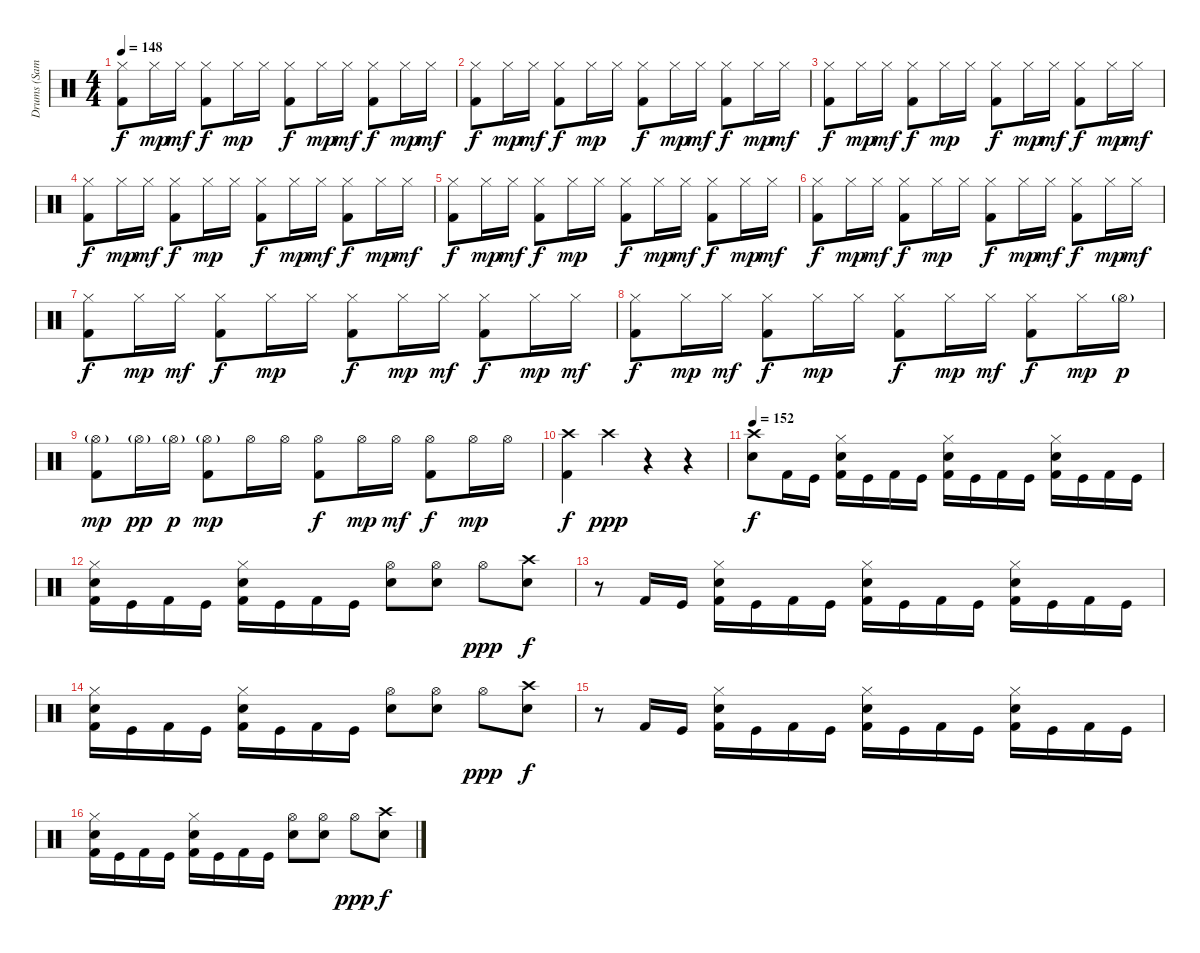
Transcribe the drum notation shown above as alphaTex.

\track ("Drums (Samuelson)" "Drums (Sam") {instrument percussion}
\staff
\articulation defaults
\ts (4 4)
\tempo 148
\clef neutral
\ks c
("Hi-Hat (closed)" "Kick (hit) 2").8{dy f} "Hi-Hat (closed)".16{dy mp} "Hi-Hat (closed)".16{dy mf} ("Hi-Hat (closed)" "Kick (hit) 2").8{dy f} "Hi-Hat (closed)".16{dy mp} "Hi-Hat (closed)".16 ("Hi-Hat (closed)" "Kick (hit) 2").8{dy f} "Hi-Hat (closed)".16{dy mp} "Hi-Hat (closed)".16{dy mf} ("Hi-Hat (closed)" "Kick (hit) 2").8{dy f} "Hi-Hat (closed)".16{dy mp} "Hi-Hat (closed)".16{dy mf} |
("Hi-Hat (closed)" "Kick (hit) 2").8{dy f} "Hi-Hat (closed)".16{dy mp} "Hi-Hat (closed)".16{dy mf} ("Hi-Hat (closed)" "Kick (hit) 2").8{dy f} "Hi-Hat (closed)".16{dy mp} "Hi-Hat (closed)".16 ("Hi-Hat (closed)" "Kick (hit) 2").8{dy f} "Hi-Hat (closed)".16{dy mp} "Hi-Hat (closed)".16{dy mf} ("Hi-Hat (closed)" "Kick (hit) 2").8{dy f} "Hi-Hat (closed)".16{dy mp} "Hi-Hat (closed)".16{dy mf} |
("Hi-Hat (closed)" "Kick (hit) 2").8{dy f} "Hi-Hat (closed)".16{dy mp} "Hi-Hat (closed)".16{dy mf} ("Hi-Hat (closed)" "Kick (hit) 2").8{dy f} "Hi-Hat (closed)".16{dy mp} "Hi-Hat (closed)".16 ("Hi-Hat (closed)" "Kick (hit) 2").8{dy f} "Hi-Hat (closed)".16{dy mp} "Hi-Hat (closed)".16{dy mf} ("Hi-Hat (closed)" "Kick (hit) 2").8{dy f} "Hi-Hat (closed)".16{dy mp} "Hi-Hat (closed)".16{dy mf} |
("Hi-Hat (closed)" "Kick (hit) 2").8{dy f} "Hi-Hat (closed)".16{dy mp} "Hi-Hat (closed)".16{dy mf} ("Hi-Hat (closed)" "Kick (hit) 2").8{dy f} "Hi-Hat (closed)".16{dy mp} "Hi-Hat (closed)".16 ("Hi-Hat (closed)" "Kick (hit) 2").8{dy f} "Hi-Hat (closed)".16{dy mp} "Hi-Hat (closed)".16{dy mf} ("Hi-Hat (closed)" "Kick (hit) 2").8{dy f} "Hi-Hat (closed)".16{dy mp} "Hi-Hat (closed)".16{dy mf} |
("Hi-Hat (closed)" "Kick (hit) 2").8{dy f} "Hi-Hat (closed)".16{dy mp} "Hi-Hat (closed)".16{dy mf} ("Hi-Hat (closed)" "Kick (hit) 2").8{dy f} "Hi-Hat (closed)".16{dy mp} "Hi-Hat (closed)".16 ("Hi-Hat (closed)" "Kick (hit) 2").8{dy f} "Hi-Hat (closed)".16{dy mp} "Hi-Hat (closed)".16{dy mf} ("Hi-Hat (closed)" "Kick (hit) 2").8{dy f} "Hi-Hat (closed)".16{dy mp} "Hi-Hat (closed)".16{dy mf} |
("Hi-Hat (closed)" "Kick (hit) 2").8{dy f} "Hi-Hat (closed)".16{dy mp} "Hi-Hat (closed)".16{dy mf} ("Hi-Hat (closed)" "Kick (hit) 2").8{dy f} "Hi-Hat (closed)".16{dy mp} "Hi-Hat (closed)".16 ("Hi-Hat (closed)" "Kick (hit) 2").8{dy f} "Hi-Hat (closed)".16{dy mp} "Hi-Hat (closed)".16{dy mf} ("Hi-Hat (closed)" "Kick (hit) 2").8{dy f} "Hi-Hat (closed)".16{dy mp} "Hi-Hat (closed)".16{dy mf} |
("Hi-Hat (closed)" "Kick (hit) 2").8{dy f} "Hi-Hat (closed)".16{dy mp} "Hi-Hat (closed)".16{dy mf} ("Hi-Hat (closed)" "Kick (hit) 2").8{dy f} "Hi-Hat (closed)".16{dy mp} "Hi-Hat (closed)".16 ("Hi-Hat (closed)" "Kick (hit) 2").8{dy f} "Hi-Hat (closed)".16{dy mp} "Hi-Hat (closed)".16{dy mf} ("Hi-Hat (closed)" "Kick (hit) 2").8{dy f} "Hi-Hat (closed)".16{dy mp} "Hi-Hat (closed)".16{dy mf} |
("Hi-Hat (closed)" "Kick (hit) 2").8{dy f} "Hi-Hat (closed)".16{dy mp} "Hi-Hat (closed)".16{dy mf} ("Hi-Hat (closed)" "Kick (hit) 2").8{dy f} "Hi-Hat (closed)".16{dy mp} "Hi-Hat (closed)".16 ("Hi-Hat (closed)" "Kick (hit) 2").8{dy f} "Hi-Hat (closed)".16{dy mp} "Hi-Hat (closed)".16{dy mf} ("Hi-Hat (closed)" "Kick (hit) 2").8{dy f} "Hi-Hat (closed)".16{dy mp} "Hi-Hat (open)"{g}.16{dy p} |
("Hi-Hat (open)"{g} "Kick (hit) 2").8{dy mp} "Hi-Hat (open)"{g}.16{dy pp} "Hi-Hat (open)"{g}.16{dy p} ("Hi-Hat (open)"{g} "Kick (hit) 2").8{dy mp} "Hi-Hat (open)".16 "Hi-Hat (open)".16 ("Hi-Hat (open)" "Kick (hit) 2").8{dy f} "Hi-Hat (open)".16{dy mp} "Hi-Hat (open)".16{dy mf} ("Hi-Hat (open)" "Kick (hit) 2").8{dy f} "Hi-Hat (open)".16{dy mp} "Hi-Hat (open)".16 |
("Crash high (hit)" "Kick (hit) 2").4{dy f} "Crash high (hit)".4{dy ppp} r.4 r.4 |
\tempo 152
("Crash high (hit)" "Electric Snare (hit)").8{dy f} "Kick (hit) 2".16 "Kick (hit)".16 ("Hi-Hat (closed)" "Electric Snare (hit)" "Kick (hit) 2").16 "Kick (hit)".16 "Kick (hit) 2".16 "Kick (hit)".16 ("Hi-Hat (closed)" "Electric Snare (hit)" "Kick (hit) 2").16 "Kick (hit)".16 "Kick (hit) 2".16 "Kick (hit)".16 ("Hi-Hat (closed)" "Electric Snare (hit)" "Kick (hit) 2").16 "Kick (hit)".16 "Kick (hit) 2".16 "Kick (hit)".16 |
("Hi-Hat (closed)" "Electric Snare (hit)" "Kick (hit) 2").16 "Kick (hit)".16 "Kick (hit) 2".16 "Kick (hit)".16 ("Hi-Hat (closed)" "Electric Snare (hit)" "Kick (hit) 2").16 "Kick (hit)".16 "Kick (hit) 2".16 "Kick (hit)".16 ("Hi-Hat (open)" "Electric Snare (hit)").8 ("Hi-Hat (open)" "Electric Snare (hit)").8 "Hi-Hat (open)".8{dy ppp} ("Crash high (hit)" "Electric Snare (hit)").8{dy f} |
r.8 "Kick (hit) 2".16 "Kick (hit)".16 ("Hi-Hat (closed)" "Electric Snare (hit)" "Kick (hit) 2").16 "Kick (hit)".16 "Kick (hit) 2".16 "Kick (hit)".16 ("Hi-Hat (closed)" "Electric Snare (hit)" "Kick (hit) 2").16 "Kick (hit)".16 "Kick (hit) 2".16 "Kick (hit)".16 ("Hi-Hat (closed)" "Electric Snare (hit)" "Kick (hit) 2").16 "Kick (hit)".16 "Kick (hit) 2".16 "Kick (hit)".16 |
("Hi-Hat (closed)" "Electric Snare (hit)" "Kick (hit) 2").16 "Kick (hit)".16 "Kick (hit) 2".16 "Kick (hit)".16 ("Hi-Hat (closed)" "Electric Snare (hit)" "Kick (hit) 2").16 "Kick (hit)".16 "Kick (hit) 2".16 "Kick (hit)".16 ("Hi-Hat (open)" "Electric Snare (hit)").8 ("Hi-Hat (open)" "Electric Snare (hit)").8 "Hi-Hat (open)".8{dy ppp} ("Crash high (hit)" "Electric Snare (hit)").8{dy f} |
r.8 "Kick (hit) 2".16 "Kick (hit)".16 ("Hi-Hat (closed)" "Electric Snare (hit)" "Kick (hit) 2").16 "Kick (hit)".16 "Kick (hit) 2".16 "Kick (hit)".16 ("Hi-Hat (closed)" "Electric Snare (hit)" "Kick (hit) 2").16 "Kick (hit)".16 "Kick (hit) 2".16 "Kick (hit)".16 ("Hi-Hat (closed)" "Electric Snare (hit)" "Kick (hit) 2").16 "Kick (hit)".16 "Kick (hit) 2".16 "Kick (hit)".16 |
("Hi-Hat (closed)" "Electric Snare (hit)" "Kick (hit) 2").16 "Kick (hit)".16 "Kick (hit) 2".16 "Kick (hit)".16 ("Hi-Hat (closed)" "Electric Snare (hit)" "Kick (hit) 2").16 "Kick (hit)".16 "Kick (hit) 2".16 "Kick (hit)".16 ("Hi-Hat (open)" "Electric Snare (hit)").8 ("Hi-Hat (open)" "Electric Snare (hit)").8 "Hi-Hat (open)".8{dy ppp} ("Crash high (hit)" "Electric Snare (hit)").8{dy f}
